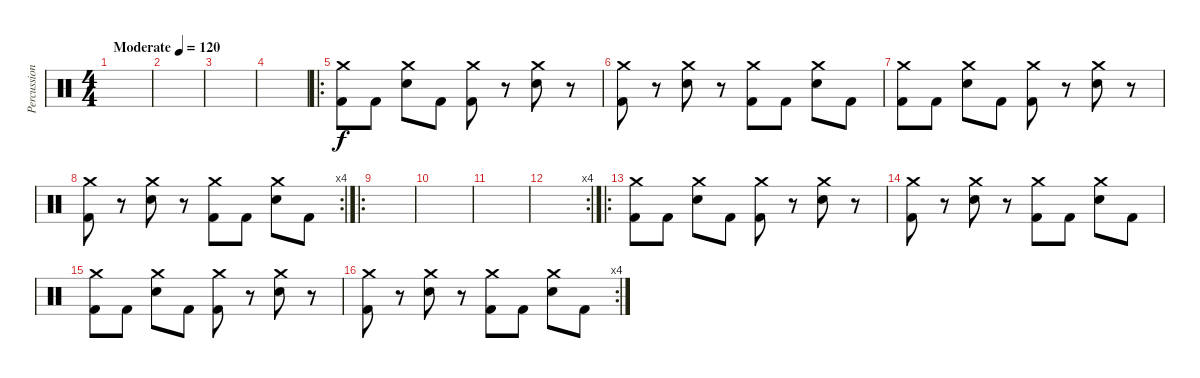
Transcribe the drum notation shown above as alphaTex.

\track ("Percussion" "Percussion") {instrument percussion}
\staff {score}
\articulation defaults
\ts (4 4)
\tempo (120 "Moderate")
\clef neutral
\ks c
|
|
|
|
\ro
("Crash medium (hit)" "Kick (hit) 2").8 "Kick (hit) 2".8 ("Crash medium (hit)" "Electric Snare (hit)").8 "Kick (hit) 2".8 ("Crash medium (hit)" "Kick (hit) 2").8 r.8 ("Crash medium (hit)" "Electric Snare (hit)").8 r.8 |
("Crash medium (hit)" "Kick (hit) 2").8 r.8 ("Crash medium (hit)" "Electric Snare (hit)").8 r.8 ("Crash medium (hit)" "Kick (hit) 2").8 "Kick (hit) 2".8 ("Crash medium (hit)" "Electric Snare (hit)").8 "Kick (hit) 2".8 |
("Crash medium (hit)" "Kick (hit) 2").8 "Kick (hit) 2".8 ("Crash medium (hit)" "Electric Snare (hit)").8 "Kick (hit) 2".8 ("Crash medium (hit)" "Kick (hit) 2").8 r.8 ("Crash medium (hit)" "Electric Snare (hit)").8 r.8 |
\rc 4
("Crash medium (hit)" "Kick (hit) 2").8 r.8 ("Crash medium (hit)" "Electric Snare (hit)").8 r.8 ("Crash medium (hit)" "Kick (hit) 2").8 "Kick (hit) 2".8 ("Crash medium (hit)" "Electric Snare (hit)").8 "Kick (hit) 2".8 |
\ro
|
|
|
\rc 4
|
\ro
("Crash medium (hit)" "Kick (hit) 2").8 "Kick (hit) 2".8 ("Crash medium (hit)" "Electric Snare (hit)").8 "Kick (hit) 2".8 ("Crash medium (hit)" "Kick (hit) 2").8 r.8 ("Crash medium (hit)" "Electric Snare (hit)").8 r.8 |
("Crash medium (hit)" "Kick (hit) 2").8 r.8 ("Crash medium (hit)" "Electric Snare (hit)").8 r.8 ("Crash medium (hit)" "Kick (hit) 2").8 "Kick (hit) 2".8 ("Crash medium (hit)" "Electric Snare (hit)").8 "Kick (hit) 2".8 |
("Crash medium (hit)" "Kick (hit) 2").8 "Kick (hit) 2".8 ("Crash medium (hit)" "Electric Snare (hit)").8 "Kick (hit) 2".8 ("Crash medium (hit)" "Kick (hit) 2").8 r.8 ("Crash medium (hit)" "Electric Snare (hit)").8 r.8 |
\rc 4
("Crash medium (hit)" "Kick (hit) 2").8 r.8 ("Crash medium (hit)" "Electric Snare (hit)").8 r.8 ("Crash medium (hit)" "Kick (hit) 2").8 "Kick (hit) 2".8 ("Crash medium (hit)" "Electric Snare (hit)").8 "Kick (hit) 2".8
